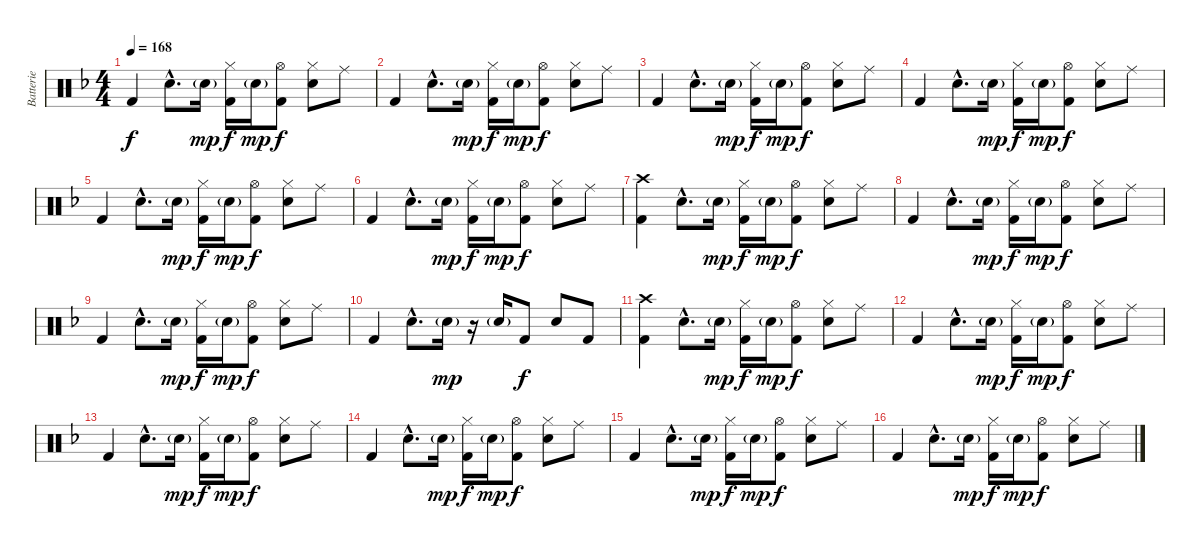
\track ("Batterie" "Batterie") {instrument percussion}
\staff {score}
\articulation defaults
\ts (4 4)
\tempo 168
\clef neutral
\ks f "Kick (hit) 2".4{dy f} "Snare (hit) 2"{hac}.8{d} "Snare (hit) 2"{g}.16{dy mp}
("Hi-Hat (closed)" "Kick (hit) 2").16{dy f} "Snare (hit) 2"{g}.16{dy mp} ("Hi-Hat (open)" "Kick (hit) 2").8{dy f} ("Hi-Hat (closed)" "Snare (hit) 2").8 "Ride (middle)".8 |
"Kick (hit) 2".4 "Snare (hit) 2"{hac}.8{d} "Snare (hit) 2"{g}.16{dy mp} ("Hi-Hat (closed)" "Kick (hit) 2").16{dy f} "Snare (hit) 2"{g}.16{dy mp} ("Hi-Hat (open)" "Kick (hit) 2").8{dy f} ("Hi-Hat (closed)" "Snare (hit) 2").8 "Ride (middle)".8 |
"Kick (hit) 2".4 "Snare (hit) 2"{hac}.8{d} "Snare (hit) 2"{g}.16{dy mp} ("Hi-Hat (closed)" "Kick (hit) 2").16{dy f} "Snare (hit) 2"{g}.16{dy mp} ("Hi-Hat (open)" "Kick (hit) 2").8{dy f} ("Hi-Hat (closed)" "Snare (hit) 2").8 "Ride (middle)".8 |
"Kick (hit) 2".4 "Snare (hit) 2"{hac}.8{d} "Snare (hit) 2"{g}.16{dy mp} ("Hi-Hat (closed)" "Kick (hit) 2").16{dy f} "Snare (hit) 2"{g}.16{dy mp} ("Hi-Hat (open)" "Kick (hit) 2").8{dy f} ("Hi-Hat (closed)" "Snare (hit) 2").8 "Ride (middle)".8 |
"Kick (hit) 2".4 "Snare (hit) 2"{hac}.8{d} "Snare (hit) 2"{g}.16{dy mp} ("Hi-Hat (closed)" "Kick (hit) 2").16{dy f} "Snare (hit) 2"{g}.16{dy mp} ("Hi-Hat (open)" "Kick (hit) 2").8{dy f} ("Hi-Hat (closed)" "Snare (hit) 2").8 "Ride (middle)".8 |
"Kick (hit) 2".4 "Snare (hit) 2"{hac}.8{d} "Snare (hit) 2"{g}.16{dy mp} ("Hi-Hat (closed)" "Kick (hit) 2").16{dy f} "Snare (hit) 2"{g}.16{dy mp} ("Hi-Hat (open)" "Kick (hit) 2").8{dy f} ("Hi-Hat (closed)" "Snare (hit) 2").8 "Ride (middle)".8 |
("Crash high (hit)" "Kick (hit) 2").4 "Snare (hit) 2"{hac}.8{d} "Snare (hit) 2"{g}.16{dy mp} ("Hi-Hat (closed)" "Kick (hit) 2").16{dy f} "Snare (hit) 2"{g}.16{dy mp} ("Hi-Hat (open)" "Kick (hit) 2").8{dy f} ("Hi-Hat (closed)" "Snare (hit) 2").8 "Ride (middle)".8 |
"Kick (hit) 2".4 "Snare (hit) 2"{hac}.8{d} "Snare (hit) 2"{g}.16{dy mp} ("Hi-Hat (closed)" "Kick (hit) 2").16{dy f} "Snare (hit) 2"{g}.16{dy mp} ("Hi-Hat (open)" "Kick (hit) 2").8{dy f} ("Hi-Hat (closed)" "Snare (hit) 2").8 "Ride (middle)".8 |
"Kick (hit) 2".4 "Snare (hit) 2"{hac}.8{d} "Snare (hit) 2"{g}.16{dy mp} ("Hi-Hat (closed)" "Kick (hit) 2").16{dy f} "Snare (hit) 2"{g}.16{dy mp} ("Hi-Hat (open)" "Kick (hit) 2").8{dy f} ("Hi-Hat (closed)" "Snare (hit) 2").8 "Ride (middle)".8 |
"Kick (hit) 2".4 "Snare (hit) 2"{hac}.8{d} "Snare (hit) 2"{g}.16{dy mp} r.16 "Snare (hit) 2"{g}.16 "Kick (hit) 2".8{dy f} "Snare (hit) 2".8 "Kick (hit) 2".8 |
("Crash high (hit)" "Kick (hit) 2").4 "Snare (hit) 2"{hac}.8{d} "Snare (hit) 2"{g}.16{dy mp} ("Hi-Hat (closed)" "Kick (hit) 2").16{dy f} "Snare (hit) 2"{g}.16{dy mp} ("Hi-Hat (open)" "Kick (hit) 2").8{dy f} ("Hi-Hat (closed)" "Snare (hit) 2").8 "Ride (middle)".8 |
"Kick (hit) 2".4 "Snare (hit) 2"{hac}.8{d} "Snare (hit) 2"{g}.16{dy mp} ("Hi-Hat (closed)" "Kick (hit) 2").16{dy f} "Snare (hit) 2"{g}.16{dy mp} ("Hi-Hat (open)" "Kick (hit) 2").8{dy f} ("Hi-Hat (closed)" "Snare (hit) 2").8 "Ride (middle)".8 |
"Kick (hit) 2".4 "Snare (hit) 2"{hac}.8{d} "Snare (hit) 2"{g}.16{dy mp} ("Hi-Hat (closed)" "Kick (hit) 2").16{dy f} "Snare (hit) 2"{g}.16{dy mp} ("Hi-Hat (open)" "Kick (hit) 2").8{dy f} ("Hi-Hat (closed)" "Snare (hit) 2").8 "Ride (middle)".8 |
"Kick (hit) 2".4 "Snare (hit) 2"{hac}.8{d} "Snare (hit) 2"{g}.16{dy mp} ("Hi-Hat (closed)" "Kick (hit) 2").16{dy f} "Snare (hit) 2"{g}.16{dy mp} ("Hi-Hat (open)" "Kick (hit) 2").8{dy f} ("Hi-Hat (closed)" "Snare (hit) 2").8 "Ride (middle)".8 |
"Kick (hit) 2".4 "Snare (hit) 2"{hac}.8{d} "Snare (hit) 2"{g}.16{dy mp} ("Hi-Hat (closed)" "Kick (hit) 2").16{dy f} "Snare (hit) 2"{g}.16{dy mp} ("Hi-Hat (open)" "Kick (hit) 2").8{dy f} ("Hi-Hat (closed)" "Snare (hit) 2").8 "Ride (middle)".8 |
"Kick (hit) 2".4 "Snare (hit) 2"{hac}.8{d} "Snare (hit) 2"{g}.16{dy mp} ("Hi-Hat (closed)" "Kick (hit) 2").16{dy f} "Snare (hit) 2"{g}.16{dy mp} ("Hi-Hat (open)" "Kick (hit) 2").8{dy f} ("Hi-Hat (closed)" "Snare (hit) 2").8 "Ride (middle)".8
